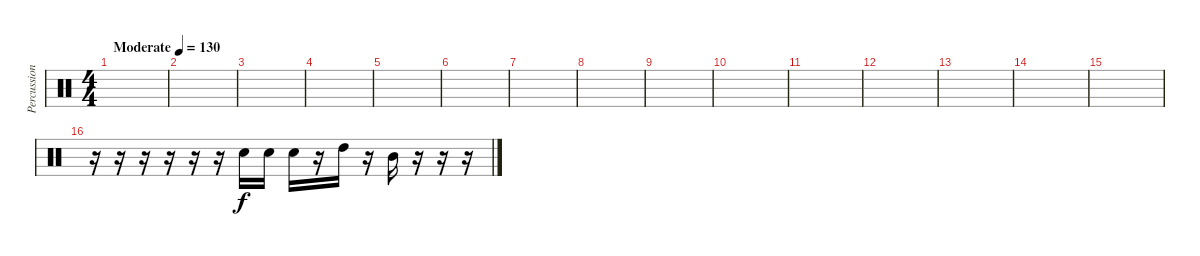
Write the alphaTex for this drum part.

\track ("Percussion" "Percussion") {instrument percussion}
\staff {score}
\articulation defaults
\ts (4 4)
\tempo (130 "Moderate")
\clef neutral
\ks c
|
|
|
|
|
|
|
|
|
|
|
|
|
|
|
r.16 r.16 r.16 r.16 r.16 r.16 "Electric Snare (hit)".16 "Electric Snare (hit)".16 "Electric Snare (hit)".16 r.16 "High Tom (hit)".16 r.16 "Mid Tom (hit)".16 r.16 r.16 r.16
